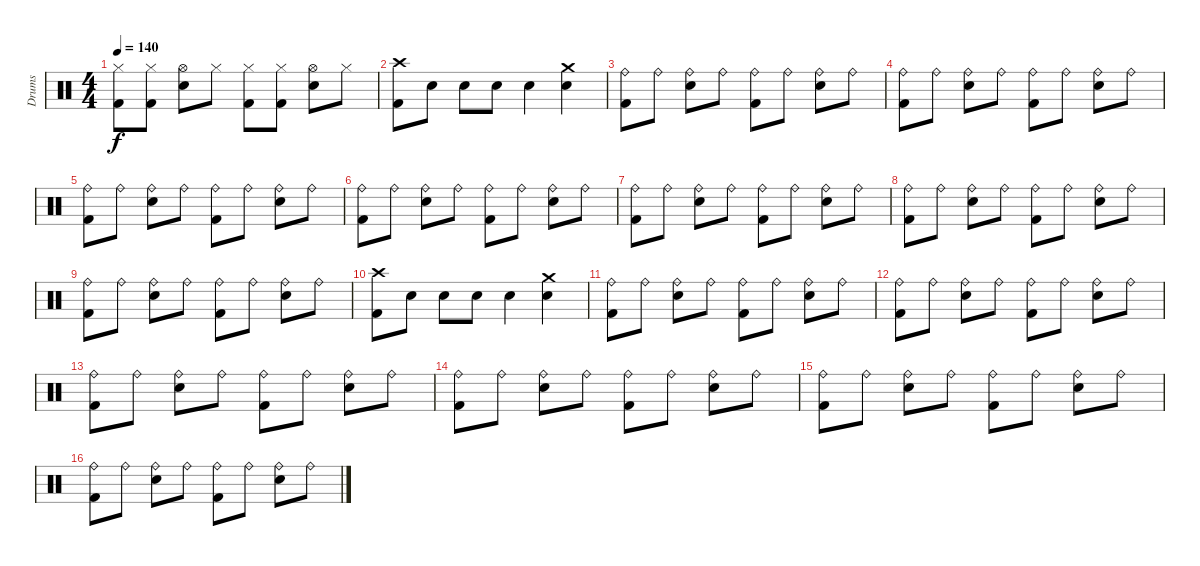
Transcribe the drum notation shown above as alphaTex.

\track ("Drums" "Drums") {instrument percussion}
\staff {score}
\articulation defaults
\ts (4 4)
\tempo 140
\clef neutral
\ks c
("Hi-Hat (closed)" "Kick (hit) 2").8{dy f} ("Hi-Hat (closed)" "Kick (hit) 2").8 ("Hi-Hat (open)" "Electric Snare (hit)").8 "Hi-Hat (closed)".8 ("Hi-Hat (closed)" "Kick (hit) 2").8 ("Hi-Hat (closed)" "Kick (hit) 2").8 ("Hi-Hat (open)" "Electric Snare (hit)").8 "Hi-Hat (closed)".8 |
("Crash high (hit)" "Kick (hit) 2").8 "Electric Snare (hit)".8 "Electric Snare (hit)".8 "Electric Snare (hit)".8 "Electric Snare (hit)".4 ("Crash medium (hit)" "Electric Snare (hit)").4 |
("Ride (bell)" "Kick (hit) 2").8 "Ride (bell)".8 ("Ride (bell)" "Electric Snare (hit)").8 "Ride (bell)".8 ("Ride (bell)" "Kick (hit) 2").8 "Ride (bell)".8 ("Ride (bell)" "Electric Snare (hit)").8 "Ride (bell)".8 |
("Ride (bell)" "Kick (hit) 2").8 "Ride (bell)".8 ("Ride (bell)" "Electric Snare (hit)").8 "Ride (bell)".8 ("Ride (bell)" "Kick (hit) 2").8 "Ride (bell)".8 ("Ride (bell)" "Electric Snare (hit)").8 "Ride (bell)".8 |
("Ride (bell)" "Kick (hit) 2").8 "Ride (bell)".8 ("Ride (bell)" "Electric Snare (hit)").8 "Ride (bell)".8 ("Ride (bell)" "Kick (hit) 2").8 "Ride (bell)".8 ("Ride (bell)" "Electric Snare (hit)").8 "Ride (bell)".8 |
("Ride (bell)" "Kick (hit) 2").8 "Ride (bell)".8 ("Ride (bell)" "Electric Snare (hit)").8 "Ride (bell)".8 ("Ride (bell)" "Kick (hit) 2").8 "Ride (bell)".8 ("Ride (bell)" "Electric Snare (hit)").8 "Ride (bell)".8 |
("Ride (bell)" "Kick (hit) 2").8 "Ride (bell)".8 ("Ride (bell)" "Electric Snare (hit)").8 "Ride (bell)".8 ("Ride (bell)" "Kick (hit) 2").8 "Ride (bell)".8 ("Ride (bell)" "Electric Snare (hit)").8 "Ride (bell)".8 |
("Ride (bell)" "Kick (hit) 2").8 "Ride (bell)".8 ("Ride (bell)" "Electric Snare (hit)").8 "Ride (bell)".8 ("Ride (bell)" "Kick (hit) 2").8 "Ride (bell)".8 ("Ride (bell)" "Electric Snare (hit)").8 "Ride (bell)".8 |
("Ride (bell)" "Kick (hit) 2").8 "Ride (bell)".8 ("Ride (bell)" "Electric Snare (hit)").8 "Ride (bell)".8 ("Ride (bell)" "Kick (hit) 2").8 "Ride (bell)".8 ("Ride (bell)" "Electric Snare (hit)").8 "Ride (bell)".8 |
("Crash high (hit)" "Kick (hit) 2").8 "Electric Snare (hit)".8 "Electric Snare (hit)".8 "Electric Snare (hit)".8 "Electric Snare (hit)".4 ("Crash medium (hit)" "Electric Snare (hit)").4 |
("Ride (bell)" "Kick (hit) 2").8 "Ride (bell)".8 ("Ride (bell)" "Electric Snare (hit)").8 "Ride (bell)".8 ("Ride (bell)" "Kick (hit) 2").8 "Ride (bell)".8 ("Ride (bell)" "Electric Snare (hit)").8 "Ride (bell)".8 |
("Ride (bell)" "Kick (hit) 2").8 "Ride (bell)".8 ("Ride (bell)" "Electric Snare (hit)").8 "Ride (bell)".8 ("Ride (bell)" "Kick (hit) 2").8 "Ride (bell)".8 ("Ride (bell)" "Electric Snare (hit)").8 "Ride (bell)".8 |
("Ride (bell)" "Kick (hit) 2").8 "Ride (bell)".8 ("Ride (bell)" "Electric Snare (hit)").8 "Ride (bell)".8 ("Ride (bell)" "Kick (hit) 2").8 "Ride (bell)".8 ("Ride (bell)" "Electric Snare (hit)").8 "Ride (bell)".8 |
("Ride (bell)" "Kick (hit) 2").8 "Ride (bell)".8 ("Ride (bell)" "Electric Snare (hit)").8 "Ride (bell)".8 ("Ride (bell)" "Kick (hit) 2").8 "Ride (bell)".8 ("Ride (bell)" "Electric Snare (hit)").8 "Ride (bell)".8 |
("Ride (bell)" "Kick (hit) 2").8 "Ride (bell)".8 ("Ride (bell)" "Electric Snare (hit)").8 "Ride (bell)".8 ("Ride (bell)" "Kick (hit) 2").8 "Ride (bell)".8 ("Ride (bell)" "Electric Snare (hit)").8 "Ride (bell)".8 |
("Ride (bell)" "Kick (hit) 2").8 "Ride (bell)".8 ("Ride (bell)" "Electric Snare (hit)").8 "Ride (bell)".8 ("Ride (bell)" "Kick (hit) 2").8 "Ride (bell)".8 ("Ride (bell)" "Electric Snare (hit)").8 "Ride (bell)".8
